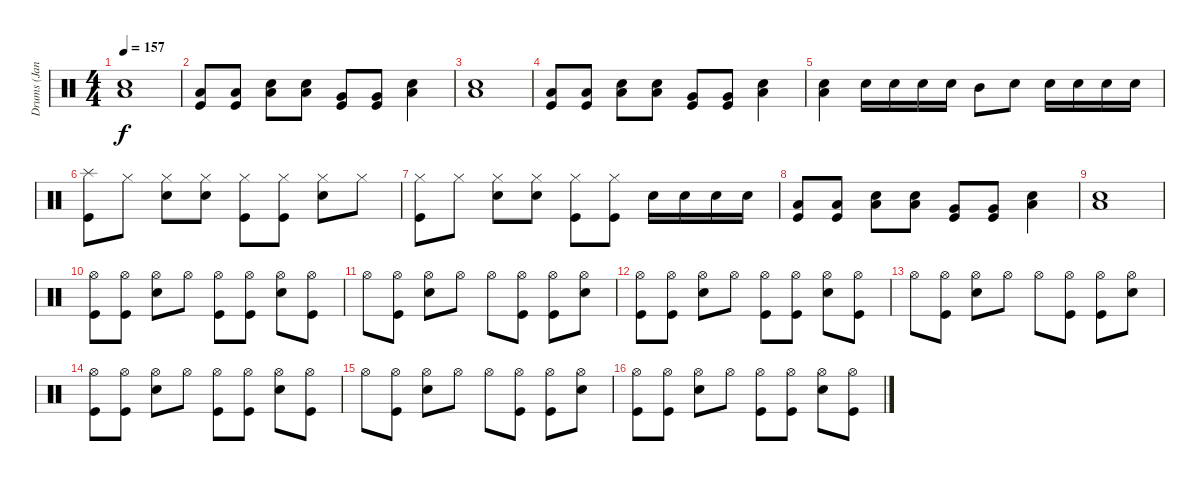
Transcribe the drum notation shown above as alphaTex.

\track ("Drums (Janet)" "Drums (Jan") {instrument percussion}
\staff {score}
\articulation defaults
\ts (4 4)
\tempo 157
\clef neutral
\ks c
("Low Tom (hit)" "Snare (hit) 2").1{dy f} |
("Low Tom (hit)" "Kick (hit)").8 ("Low Tom (hit)" "Kick (hit)").8 ("Low Tom (hit)" "Snare (hit) 2").8 ("Low Tom (hit)" "Snare (hit) 2").8 ("Very Low Tom (hit)" "Kick (hit)").8 ("Very Low Tom (hit)" "Kick (hit)").8 ("Low Tom (hit)" "Snare (hit) 2").4 |
("Low Tom (hit)" "Snare (hit) 2").1 |
("Low Tom (hit)" "Kick (hit)").8 ("Low Tom (hit)" "Kick (hit)").8 ("Low Tom (hit)" "Snare (hit) 2").8 ("Low Tom (hit)" "Snare (hit) 2").8 ("Very Low Tom (hit)" "Kick (hit)").8 ("Very Low Tom (hit)" "Kick (hit)").8 ("Low Tom (hit)" "Snare (hit) 2").4 |
("Low Tom (hit)" "Snare (hit) 2").4 "Snare (hit) 2".16 "Snare (hit) 2".16 "Snare (hit) 2".16 "Snare (hit) 2".16 "Mid Tom (hit)".8 "Snare (hit) 2".8 "Snare (hit) 2".16 "Snare (hit) 2".16 "Snare (hit) 2".16 "Snare (hit) 2".16 |
("Splash (hit)" "Kick (hit)").8 "Hi-Hat (closed)".8 ("Hi-Hat (closed)" "Snare (hit) 2").8 ("Hi-Hat (closed)" "Snare (hit) 2").8 ("Hi-Hat (closed)" "Kick (hit)").8 ("Hi-Hat (closed)" "Kick (hit)").8 ("Hi-Hat (closed)" "Snare (hit) 2").8 "Hi-Hat (closed)".8 |
("Hi-Hat (closed)" "Kick (hit)").8 "Hi-Hat (closed)".8 ("Hi-Hat (closed)" "Snare (hit) 2").8 ("Hi-Hat (closed)" "Snare (hit) 2").8 ("Hi-Hat (closed)" "Kick (hit)").8 ("Hi-Hat (closed)" "Kick (hit)").8 "Snare (hit) 2".16 "Snare (hit) 2".16 "Snare (hit) 2".16 "Snare (hit) 2".16 |
("Low Tom (hit)" "Kick (hit)").8 ("Low Tom (hit)" "Kick (hit)").8 ("Low Tom (hit)" "Snare (hit) 2").8 ("Low Tom (hit)" "Snare (hit) 2").8 ("Very Low Tom (hit)" "Kick (hit)").8 ("Very Low Tom (hit)" "Kick (hit)").8 ("Low Tom (hit)" "Snare (hit) 2").4 |
("Low Tom (hit)" "Snare (hit) 2").1 |
("Hi-Hat (open)" "Kick (hit)").8 ("Hi-Hat (open)" "Kick (hit)").8 ("Hi-Hat (open)" "Snare (hit) 2").8 "Hi-Hat (open)".8 ("Hi-Hat (open)" "Kick (hit)").8 ("Hi-Hat (open)" "Kick (hit)").8 ("Hi-Hat (open)" "Snare (hit) 2").8 ("Hi-Hat (open)" "Kick (hit)").8 |
"Hi-Hat (open)".8 ("Hi-Hat (open)" "Kick (hit)").8 ("Hi-Hat (open)" "Snare (hit) 2").8 "Hi-Hat (open)".8 "Hi-Hat (open)".8 ("Hi-Hat (open)" "Kick (hit)").8 ("Hi-Hat (open)" "Kick (hit)").8 ("Hi-Hat (open)" "Snare (hit) 2").8 |
("Hi-Hat (open)" "Kick (hit)").8 ("Hi-Hat (open)" "Kick (hit)").8 ("Hi-Hat (open)" "Snare (hit) 2").8 "Hi-Hat (open)".8 ("Hi-Hat (open)" "Kick (hit)").8 ("Hi-Hat (open)" "Kick (hit)").8 ("Hi-Hat (open)" "Snare (hit) 2").8 ("Hi-Hat (open)" "Kick (hit)").8 |
"Hi-Hat (open)".8 ("Hi-Hat (open)" "Kick (hit)").8 ("Hi-Hat (open)" "Snare (hit) 2").8 "Hi-Hat (open)".8 "Hi-Hat (open)".8 ("Hi-Hat (open)" "Kick (hit)").8 ("Hi-Hat (open)" "Kick (hit)").8 ("Hi-Hat (open)" "Snare (hit) 2").8 |
("Hi-Hat (open)" "Kick (hit)").8 ("Hi-Hat (open)" "Kick (hit)").8 ("Hi-Hat (open)" "Snare (hit) 2").8 "Hi-Hat (open)".8 ("Hi-Hat (open)" "Kick (hit)").8 ("Hi-Hat (open)" "Kick (hit)").8 ("Hi-Hat (open)" "Snare (hit) 2").8 ("Hi-Hat (open)" "Kick (hit)").8 |
"Hi-Hat (open)".8 ("Hi-Hat (open)" "Kick (hit)").8 ("Hi-Hat (open)" "Snare (hit) 2").8 "Hi-Hat (open)".8 "Hi-Hat (open)".8 ("Hi-Hat (open)" "Kick (hit)").8 ("Hi-Hat (open)" "Kick (hit)").8 ("Hi-Hat (open)" "Snare (hit) 2").8 |
("Hi-Hat (open)" "Kick (hit)").8 ("Hi-Hat (open)" "Kick (hit)").8 ("Hi-Hat (open)" "Snare (hit) 2").8 "Hi-Hat (open)".8 ("Hi-Hat (open)" "Kick (hit)").8 ("Hi-Hat (open)" "Kick (hit)").8 ("Hi-Hat (open)" "Snare (hit) 2").8 ("Hi-Hat (open)" "Kick (hit)").8
